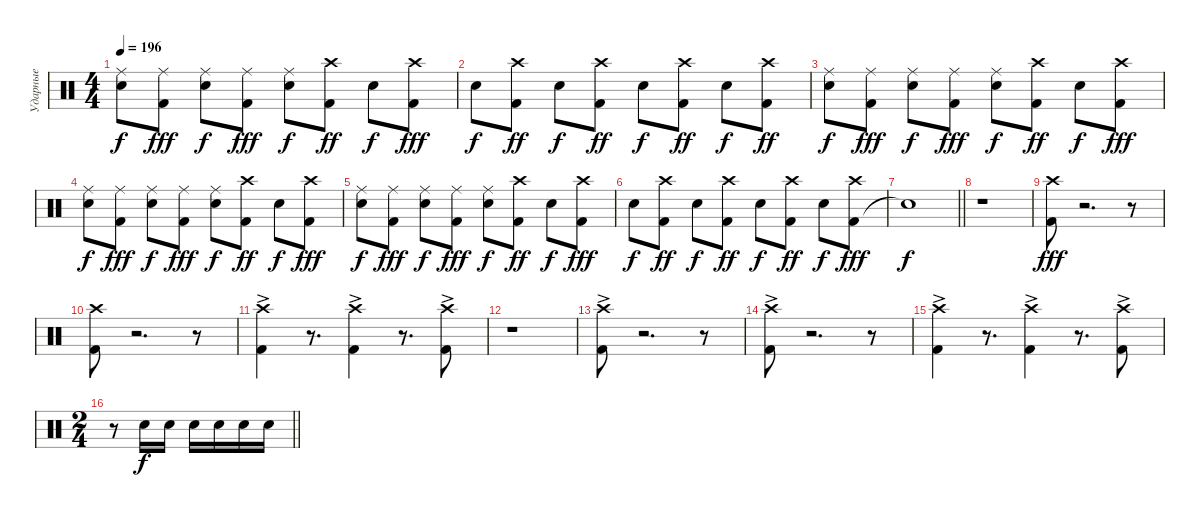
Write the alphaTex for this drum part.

\track ("Ударные" "Ударные") {instrument percussion}
\staff {score}
\articulation defaults
\ts (4 4)
\tempo 196
\clef neutral
\ks c
("Snare (hit) 2" "Ride (middle)").8{dy f} ("Kick (hit) 2" "Ride (middle)").8{dy fff} ("Snare (hit) 2" "Ride (middle)").8{dy f} ("Kick (hit) 2" "Ride (middle)").8{dy fff} ("Snare (hit) 2" "Ride (middle)").8{dy f} ("Kick (hit) 2" "Crash high (hit)").8{dy ff} "Snare (hit) 2".8{dy f} ("Kick (hit) 2" "Crash high (hit)").8{dy fff} |
"Snare (hit) 2".8{dy f} ("Kick (hit) 2" "Crash high (hit)").8{dy ff} "Snare (hit) 2".8{dy f} ("Kick (hit) 2" "Crash high (hit)").8{dy ff} "Snare (hit) 2".8{dy f} ("Kick (hit) 2" "Crash high (hit)").8{dy ff} "Snare (hit) 2".8{dy f} ("Kick (hit) 2" "Crash high (hit)").8{dy ff} |
("Snare (hit) 2" "Ride (middle)").8{dy f} ("Kick (hit) 2" "Ride (middle)").8{dy fff} ("Snare (hit) 2" "Ride (middle)").8{dy f} ("Kick (hit) 2" "Ride (middle)").8{dy fff} ("Snare (hit) 2" "Ride (middle)").8{dy f} ("Kick (hit) 2" "Crash high (hit)").8{dy ff} "Snare (hit) 2".8{dy f} ("Kick (hit) 2" "Crash high (hit)").8{dy fff} |
("Snare (hit) 2" "Ride (middle)").8{dy f} ("Kick (hit) 2" "Ride (middle)").8{dy fff} ("Snare (hit) 2" "Ride (middle)").8{dy f} ("Kick (hit) 2" "Ride (middle)").8{dy fff} ("Snare (hit) 2" "Ride (middle)").8{dy f} ("Kick (hit) 2" "Crash high (hit)").8{dy ff} "Snare (hit) 2".8{dy f} ("Kick (hit) 2" "Crash high (hit)").8{dy fff} |
("Snare (hit) 2" "Ride (middle)").8{dy f} ("Kick (hit) 2" "Ride (middle)").8{dy fff} ("Snare (hit) 2" "Ride (middle)").8{dy f} ("Kick (hit) 2" "Ride (middle)").8{dy fff} ("Snare (hit) 2" "Ride (middle)").8{dy f} ("Kick (hit) 2" "Crash high (hit)").8{dy ff} "Snare (hit) 2".8{dy f} ("Kick (hit) 2" "Crash high (hit)").8{dy fff} |
"Snare (hit) 2".8{dy f} ("Kick (hit) 2" "Crash high (hit)").8{dy ff} "Snare (hit) 2".8{dy f} ("Kick (hit) 2" "Crash high (hit)").8{dy ff} "Snare (hit) 2".8{dy f} ("Kick (hit) 2" "Crash high (hit)").8{dy ff} "Snare (hit) 2".8{dy f} ("Kick (hit) 2" "Crash high (hit)").8{dy fff} |
\barLineRight lightlight "Snare (hit)"{t}.1{dy f}
|
r.1 |
("Kick (hit) 2" "Crash high (hit)").8{dy fff} r.2{d} r.8 |
("Kick (hit) 2" "Crash high (hit)").8 r.2{d} r.8 |
("Kick (hit) 2" "Crash high (hit)"{ac}).4 r.8{d} ("Kick (hit) 2" "Crash high (hit)"{ac}).4 r.8{d} ("Kick (hit) 2" "Crash high (hit)"{ac}).8 |
r.1 |
("Kick (hit) 2" "Crash high (hit)"{ac}).8 r.2{d} r.8 |
("Kick (hit) 2" "Crash high (hit)"{ac}).8 r.2{d} r.8 |
("Kick (hit) 2" "Crash high (hit)"{ac}).4 r.8{d} ("Kick (hit) 2" "Crash high (hit)"{ac}).4 r.8{d} ("Kick (hit) 2" "Crash high (hit)"{ac}).8 |
\ts (2 4)
\barLineRight lightlight
r.8 "Snare (hit) 2".16{dy f} "Snare (hit) 2".16 "Snare (hit) 2".16 "Snare (hit) 2".16 "Snare (hit) 2".16 "Snare (hit) 2".16
